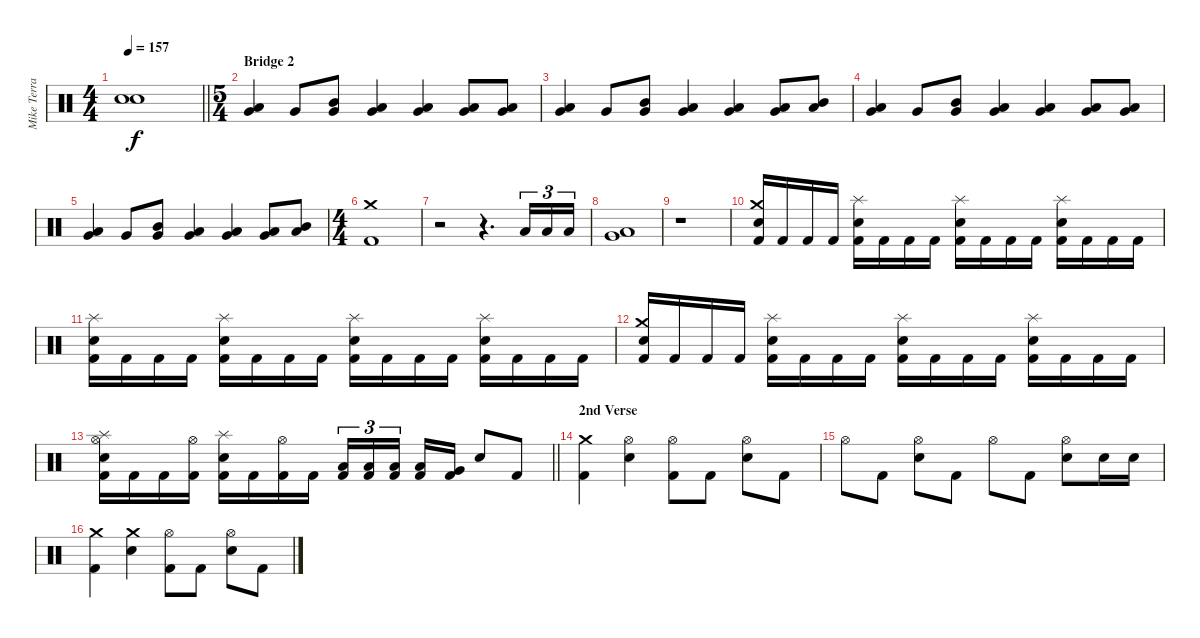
\track ("Mike Terrana" "Mike Terra") {instrument percussion}
\staff {score}
\articulation defaults
\ts (4 4)
\tempo 157
\clef neutral
\barLineRight lightlight
\ks c
("Snare (hit)"{t} "Snare (hit)"{t}).1{dy f} |
\ts (5 4)
\section ("" "Bridge 2")
("Low Tom (hit)" "Very Low Tom (hit)").4 "Very Low Tom (hit)".8 ("Mid Tom (hit)" "Very Low Tom (hit)").8 ("Low Tom (hit)" "Very Low Tom (hit)").4 ("Low Tom (hit)" "Very Low Tom (hit)").4 ("Low Tom (hit)" "Very Low Tom (hit)").8 ("Very Low Tom (hit)" "Low Tom (hit)").8 |
("Low Tom (hit)" "Very Low Tom (hit)").4 "Very Low Tom (hit)".8 ("Mid Tom (hit)" "Very Low Tom (hit)").8 ("Low Tom (hit)" "Very Low Tom (hit)").4 ("Low Tom (hit)" "Very Low Tom (hit)").4 ("Low Tom (hit)" "Very Low Tom (hit)").8 ("Mid Tom (hit)" "Low Tom (hit)").8 |
("Low Tom (hit)" "Very Low Tom (hit)").4 "Very Low Tom (hit)".8 ("Mid Tom (hit)" "Very Low Tom (hit)").8 ("Low Tom (hit)" "Very Low Tom (hit)").4 ("Low Tom (hit)" "Very Low Tom (hit)").4 ("Low Tom (hit)" "Very Low Tom (hit)").8 ("Very Low Tom (hit)" "Low Tom (hit)").8 |
("Low Tom (hit)" "Very Low Tom (hit)").4 "Very Low Tom (hit)".8 ("Mid Tom (hit)" "Very Low Tom (hit)").8 ("Low Tom (hit)" "Very Low Tom (hit)").4 ("Low Tom (hit)" "Very Low Tom (hit)").4 ("Low Tom (hit)" "Very Low Tom (hit)").8 ("Mid Tom (hit)" "Low Tom (hit)").8 |
\ts (4 4)
("Crash medium (hit)" "Kick (hit) 2").1 |
r.2 r.4{d} "Low Tom (hit)".16{tu (3 2)} "Low Tom (hit)".16{tu (3 2)} "Low Tom (hit)".16{tu (3 2)} |
("Low Tom (hit)" "Very Low Tom (hit)").1 |
r.1 |
("Crash medium (hit)" "Snare (hit) 2" "Kick (hit) 2").16 "Kick (hit) 2".16 "Kick (hit) 2".16 "Kick (hit) 2".16 ("Splash (hit)" "Snare (hit) 2" "Kick (hit) 2").16 "Kick (hit) 2".16 "Kick (hit) 2".16 "Kick (hit) 2".16 ("Splash (hit)" "Snare (hit) 2" "Kick (hit) 2").16 "Kick (hit) 2".16 "Kick (hit) 2".16 "Kick (hit) 2".16 ("Splash (hit)" "Snare (hit) 2" "Kick (hit) 2").16 "Kick (hit) 2".16 "Kick (hit) 2".16 "Kick (hit) 2".16 |
("Splash (hit)" "Snare (hit) 2" "Kick (hit) 2").16 "Kick (hit) 2".16 "Kick (hit) 2".16 "Kick (hit) 2".16 ("Splash (hit)" "Snare (hit) 2" "Kick (hit) 2").16 "Kick (hit) 2".16 "Kick (hit) 2".16 "Kick (hit) 2".16 ("Splash (hit)" "Snare (hit) 2" "Kick (hit) 2").16 "Kick (hit) 2".16 "Kick (hit) 2".16 "Kick (hit) 2".16 ("Splash (hit)" "Snare (hit) 2" "Kick (hit) 2").16 "Kick (hit) 2".16 "Kick (hit) 2".16 "Kick (hit) 2".16 |
("Crash medium (hit)" "Snare (hit) 2" "Kick (hit) 2").16 "Kick (hit) 2".16 "Kick (hit) 2".16 "Kick (hit) 2".16 ("Splash (hit)" "Snare (hit) 2" "Kick (hit) 2").16 "Kick (hit) 2".16 "Kick (hit) 2".16 "Kick (hit) 2".16 ("Splash (hit)" "Snare (hit) 2" "Kick (hit) 2").16 "Kick (hit) 2".16 "Kick (hit) 2".16 "Kick (hit) 2".16 ("Splash (hit)" "Snare (hit) 2" "Kick (hit) 2").16 "Kick (hit) 2".16 "Kick (hit) 2".16 "Kick (hit) 2".16 |
\barLineRight lightlight
("Splash (hit)" "Hi-Hat (open)" "Snare (hit) 2" "Kick (hit) 2").16 "Kick (hit) 2".16 "Kick (hit) 2".16 ("Hi-Hat (open)" "Kick (hit) 2").16 ("Splash (hit)" "Snare (hit) 2" "Kick (hit) 2").16 "Kick (hit) 2".16 ("Hi-Hat (open)" "Kick (hit) 2").16 "Kick (hit) 2".16 ("Low Tom (hit)" "Kick (hit) 2").16{tu (3 2)} ("Low Tom (hit)" "Kick (hit) 2").16{tu (3 2)} ("Low Tom (hit)" "Kick (hit) 2").16{tu (3 2) beam splitsecondary} ("Low Tom (hit)" "Kick (hit) 2").16 ("Very Low Tom (hit)" "Kick (hit) 2").16 "Snare (hit) 2".8 "Kick (hit) 2".8 |
\section ("" "2nd Verse")
("Crash medium (hit)" "Kick (hit) 2").4 ("Hi-Hat (open)" "Snare (hit) 2").4 ("Hi-Hat (open)" "Kick (hit) 2").8 "Kick (hit) 2".8 ("Hi-Hat (open)" "Snare (hit) 2").8 "Kick (hit) 2".8 |
"Hi-Hat (open)".8 "Kick (hit) 2".8 ("Hi-Hat (open)" "Snare (hit) 2").8 "Kick (hit) 2".8 "Hi-Hat (open)".8 "Kick (hit) 2".8 ("Hi-Hat (open)" "Snare (hit) 2").8 "Snare (hit) 2".16 "Snare (hit) 2".16 |
("Crash medium (hit)" "Kick (hit) 2").4 ("Crash medium (hit)" "Snare (hit) 2").4 ("Hi-Hat (open)" "Kick (hit) 2").8 "Kick (hit) 2".8 ("Hi-Hat (open)" "Snare (hit) 2").8 "Kick (hit) 2".8
